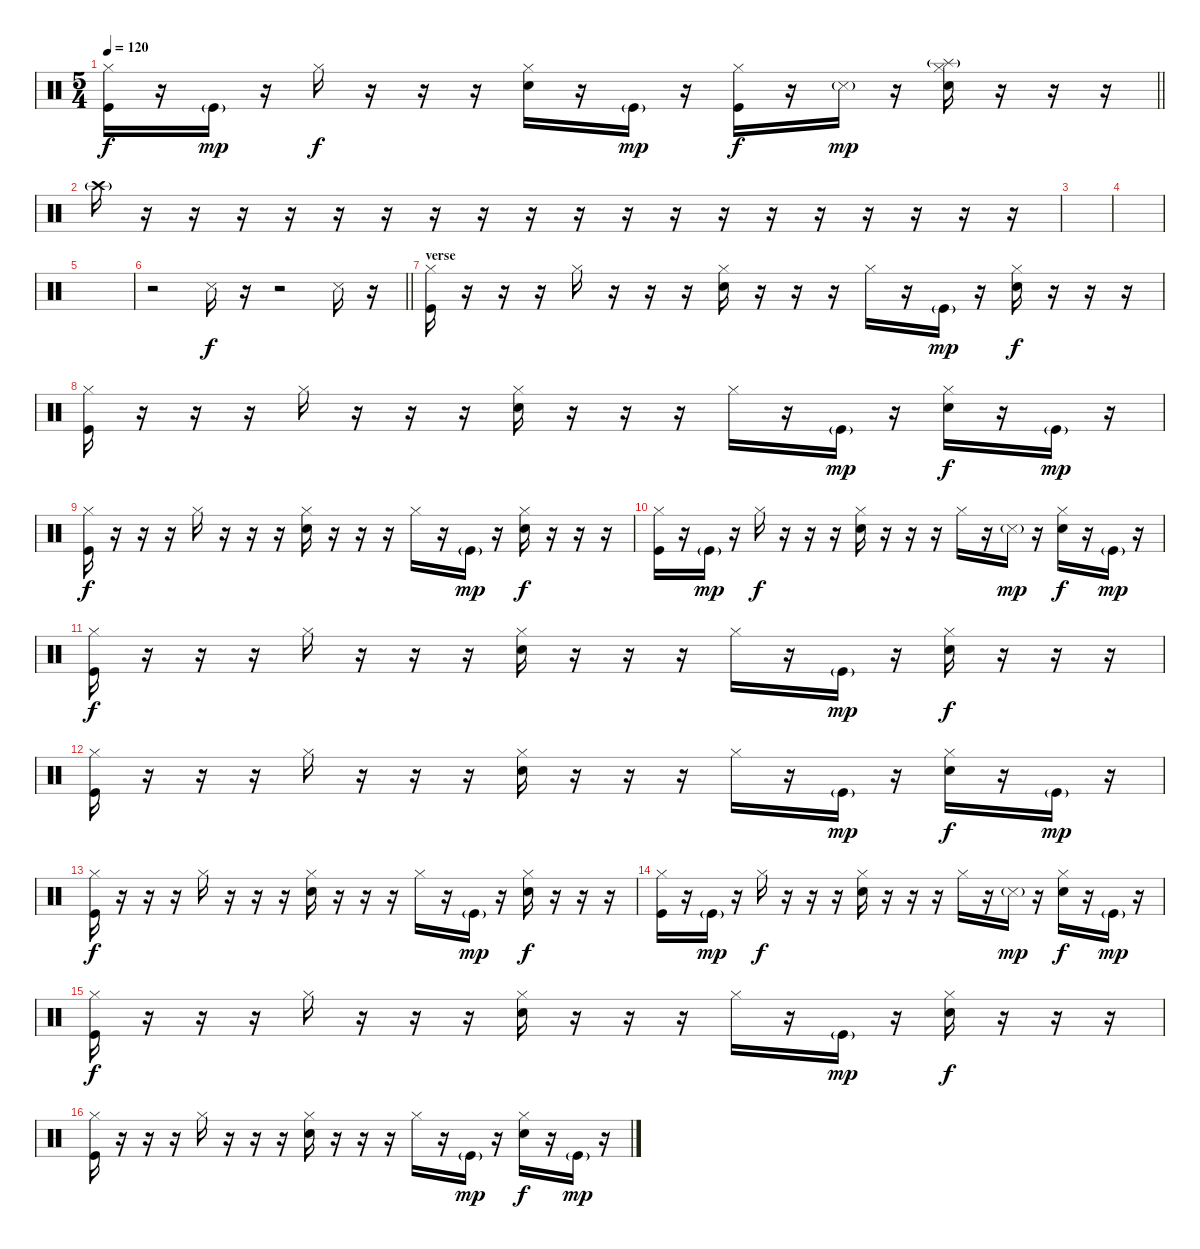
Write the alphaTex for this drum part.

\track "" {instrument percussion}
\staff {score}
\articulation defaults
\ts (5 4)
\tempo 120
\clef neutral
\barLineRight lightlight
\ks c
("Kick (hit)" "Hi-Hat (closed)").16{dy f} r.16 "Kick (hit)"{g}.16{dy mp} r.16 "Hi-Hat (closed)".16{dy f} r.16 r.16 r.16 ("Snare (hit) 2" "Hi-Hat (closed)").16 r.16 "Kick (hit)"{g}.16{dy mp} r.16 ("Kick (hit)" "Hi-Hat (closed)").16{dy f} r.16 "Snare (side stick) 3"{g}.16{dy mp} r.16 ("Snare (hit) 2" "Hi-Hat (closed)" "Splash (hit)"{g}).16 r.16 r.16 r.16 |
"Crash high (hit)"{g}.16 r.16 r.16 r.16 r.16 r.16 r.16 r.16 r.16 r.16 r.16 r.16 r.16 r.16 r.16 r.16 r.16 r.16 r.16 r.16 |
|
|
|
\barLineRight lightlight
r.2 "Snare (side stick) 3".16{dy f} r.16 r.2 "Snare (side stick) 3".16 r.16 |
\section ("" "verse")
("Kick (hit)" "Hi-Hat (closed)").16 r.16 r.16 r.16 "Hi-Hat (closed)".16 r.16 r.16 r.16 ("Snare (hit) 2" "Hi-Hat (closed)").16 r.16 r.16 r.16 "Hi-Hat (closed)".16 r.16 "Kick (hit)"{g}.16{dy mp} r.16 ("Snare (hit) 2" "Hi-Hat (closed)").16{dy f} r.16 r.16 r.16 |
("Kick (hit)" "Hi-Hat (closed)").16 r.16 r.16 r.16 "Hi-Hat (closed)".16 r.16 r.16 r.16 ("Snare (hit) 2" "Hi-Hat (closed)").16 r.16 r.16 r.16 "Hi-Hat (closed)".16 r.16 "Kick (hit)"{g}.16{dy mp} r.16 ("Snare (hit) 2" "Hi-Hat (closed)").16{dy f} r.16 "Kick (hit)"{g}.16{dy mp} r.16 |
("Kick (hit)" "Hi-Hat (closed)").16{dy f} r.16 r.16 r.16 "Hi-Hat (closed)".16 r.16 r.16 r.16 ("Snare (hit) 2" "Hi-Hat (closed)").16 r.16 r.16 r.16 "Hi-Hat (closed)".16 r.16 "Kick (hit)"{g}.16{dy mp} r.16 ("Snare (hit) 2" "Hi-Hat (closed)").16{dy f} r.16 r.16 r.16 |
("Kick (hit)" "Hi-Hat (closed)").16 r.16 "Kick (hit)"{g}.16{dy mp} r.16 "Hi-Hat (closed)".16{dy f} r.16 r.16 r.16 ("Snare (hit) 2" "Hi-Hat (closed)").16 r.16 r.16 r.16 "Hi-Hat (closed)".16 r.16 "Snare (side stick) 3"{g}.16{dy mp} r.16 ("Snare (hit) 2" "Hi-Hat (closed)").16{dy f} r.16 "Kick (hit)"{g}.16{dy mp} r.16 |
("Kick (hit)" "Hi-Hat (closed)").16{dy f} r.16 r.16 r.16 "Hi-Hat (closed)".16 r.16 r.16 r.16 ("Snare (hit) 2" "Hi-Hat (closed)").16 r.16 r.16 r.16 "Hi-Hat (closed)".16 r.16 "Kick (hit)"{g}.16{dy mp} r.16 ("Snare (hit) 2" "Hi-Hat (closed)").16{dy f} r.16 r.16 r.16 |
("Kick (hit)" "Hi-Hat (closed)").16 r.16 r.16 r.16 "Hi-Hat (closed)".16 r.16 r.16 r.16 ("Snare (hit) 2" "Hi-Hat (closed)").16 r.16 r.16 r.16 "Hi-Hat (closed)".16 r.16 "Kick (hit)"{g}.16{dy mp} r.16 ("Snare (hit) 2" "Hi-Hat (closed)").16{dy f} r.16 "Kick (hit)"{g}.16{dy mp} r.16 |
("Kick (hit)" "Hi-Hat (closed)").16{dy f} r.16 r.16 r.16 "Hi-Hat (closed)".16 r.16 r.16 r.16 ("Snare (hit) 2" "Hi-Hat (closed)").16 r.16 r.16 r.16 "Hi-Hat (closed)".16 r.16 "Kick (hit)"{g}.16{dy mp} r.16 ("Snare (hit) 2" "Hi-Hat (closed)").16{dy f} r.16 r.16 r.16 |
("Kick (hit)" "Hi-Hat (closed)").16 r.16 "Kick (hit)"{g}.16{dy mp} r.16 "Hi-Hat (closed)".16{dy f} r.16 r.16 r.16 ("Snare (hit) 2" "Hi-Hat (closed)").16 r.16 r.16 r.16 "Hi-Hat (closed)".16 r.16 "Snare (side stick) 3"{g}.16{dy mp} r.16 ("Snare (hit) 2" "Hi-Hat (closed)").16{dy f} r.16 "Kick (hit)"{g}.16{dy mp} r.16 |
("Kick (hit)" "Hi-Hat (closed)").16{dy f} r.16 r.16 r.16 "Hi-Hat (closed)".16 r.16 r.16 r.16 ("Snare (hit) 2" "Hi-Hat (closed)").16 r.16 r.16 r.16 "Hi-Hat (closed)".16 r.16 "Kick (hit)"{g}.16{dy mp} r.16 ("Snare (hit) 2" "Hi-Hat (closed)").16{dy f} r.16 r.16 r.16 |
("Kick (hit)" "Hi-Hat (closed)").16 r.16 r.16 r.16 "Hi-Hat (closed)".16 r.16 r.16 r.16 ("Snare (hit) 2" "Hi-Hat (closed)").16 r.16 r.16 r.16 "Hi-Hat (closed)".16 r.16 "Kick (hit)"{g}.16{dy mp} r.16 ("Snare (hit) 2" "Hi-Hat (closed)").16{dy f} r.16 "Kick (hit)"{g}.16{dy mp} r.16
